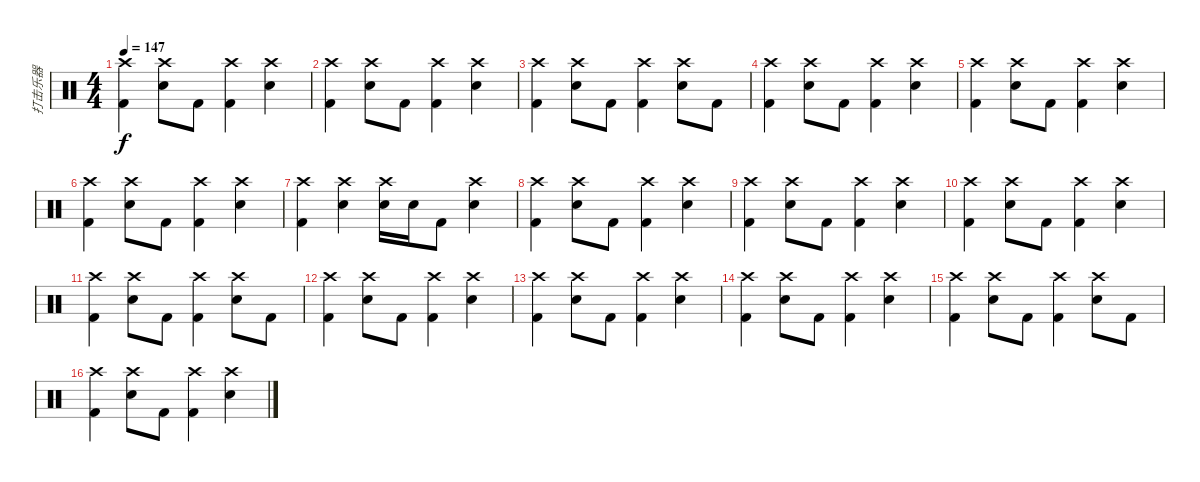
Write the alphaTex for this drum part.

\track ("打击乐器" "打击乐器") {instrument percussion}
\staff {score}
\articulation defaults
\ts (4 4)
\tempo 147
\clef neutral
\ks c
("Crash high (hit)" "Kick (hit) 2").4{dy f} ("Crash high (hit)" "Snare (hit) 2").8 "Kick (hit) 2".8 ("Crash high (hit)" "Kick (hit) 2").4 ("Crash high (hit)" "Snare (hit) 2").4 |
("Crash high (hit)" "Kick (hit) 2").4 ("Crash high (hit)" "Snare (hit) 2").8 "Kick (hit) 2".8 ("Crash high (hit)" "Kick (hit) 2").4 ("Crash high (hit)" "Snare (hit) 2").4 |
("Crash high (hit)" "Kick (hit) 2").4 ("Crash high (hit)" "Snare (hit) 2").8 "Kick (hit) 2".8 ("Crash high (hit)" "Kick (hit) 2").4 ("Crash high (hit)" "Snare (hit) 2").8 "Kick (hit) 2".8 |
("Crash high (hit)" "Kick (hit) 2").4 ("Crash high (hit)" "Snare (hit) 2").8 "Kick (hit) 2".8 ("Crash high (hit)" "Kick (hit) 2").4 ("Crash high (hit)" "Snare (hit) 2").4 |
("Crash high (hit)" "Kick (hit) 2").4 ("Crash high (hit)" "Snare (hit) 2").8 "Kick (hit) 2".8 ("Crash high (hit)" "Kick (hit) 2").4 ("Crash high (hit)" "Snare (hit) 2").4 |
("Crash high (hit)" "Kick (hit) 2").4 ("Crash high (hit)" "Snare (hit) 2").8 "Kick (hit) 2".8 ("Crash high (hit)" "Kick (hit) 2").4 ("Crash high (hit)" "Snare (hit) 2").4 |
("Crash high (hit)" "Kick (hit) 2").4 ("Crash high (hit)" "Snare (hit) 2").4 ("Crash high (hit)" "Snare (hit) 2").16 "Snare (hit) 2".16 "Kick (hit) 2".8 ("Crash high (hit)" "Snare (hit) 2").4 |
("Crash high (hit)" "Kick (hit) 2").4 ("Crash high (hit)" "Snare (hit) 2").8 "Kick (hit) 2".8 ("Crash high (hit)" "Kick (hit) 2").4 ("Crash high (hit)" "Snare (hit) 2").4 |
("Crash high (hit)" "Kick (hit) 2").4 ("Crash high (hit)" "Snare (hit) 2").8 "Kick (hit) 2".8 ("Crash high (hit)" "Kick (hit) 2").4 ("Crash high (hit)" "Snare (hit) 2").4 |
("Crash high (hit)" "Kick (hit) 2").4 ("Crash high (hit)" "Snare (hit) 2").8 "Kick (hit) 2".8 ("Crash high (hit)" "Kick (hit) 2").4 ("Crash high (hit)" "Snare (hit) 2").4 |
("Crash high (hit)" "Kick (hit) 2").4 ("Crash high (hit)" "Snare (hit) 2").8 "Kick (hit) 2".8 ("Crash high (hit)" "Kick (hit) 2").4 ("Crash high (hit)" "Snare (hit) 2").8 "Kick (hit) 2".8 |
("Crash high (hit)" "Kick (hit) 2").4 ("Crash high (hit)" "Snare (hit) 2").8 "Kick (hit) 2".8 ("Crash high (hit)" "Kick (hit) 2").4 ("Crash high (hit)" "Snare (hit) 2").4 |
("Crash high (hit)" "Kick (hit) 2").4 ("Crash high (hit)" "Snare (hit) 2").8 "Kick (hit) 2".8 ("Crash high (hit)" "Kick (hit) 2").4 ("Crash high (hit)" "Snare (hit) 2").4 |
("Crash high (hit)" "Kick (hit) 2").4 ("Crash high (hit)" "Snare (hit) 2").8 "Kick (hit) 2".8 ("Crash high (hit)" "Kick (hit) 2").4 ("Crash high (hit)" "Snare (hit) 2").4 |
("Crash high (hit)" "Kick (hit) 2").4 ("Crash high (hit)" "Snare (hit) 2").8 "Kick (hit) 2".8 ("Crash high (hit)" "Kick (hit) 2").4 ("Crash high (hit)" "Snare (hit) 2").8 "Kick (hit) 2".8 |
("Crash high (hit)" "Kick (hit) 2").4 ("Crash high (hit)" "Snare (hit) 2").8 "Kick (hit) 2".8 ("Crash high (hit)" "Kick (hit) 2").4 ("Crash high (hit)" "Snare (hit) 2").4
